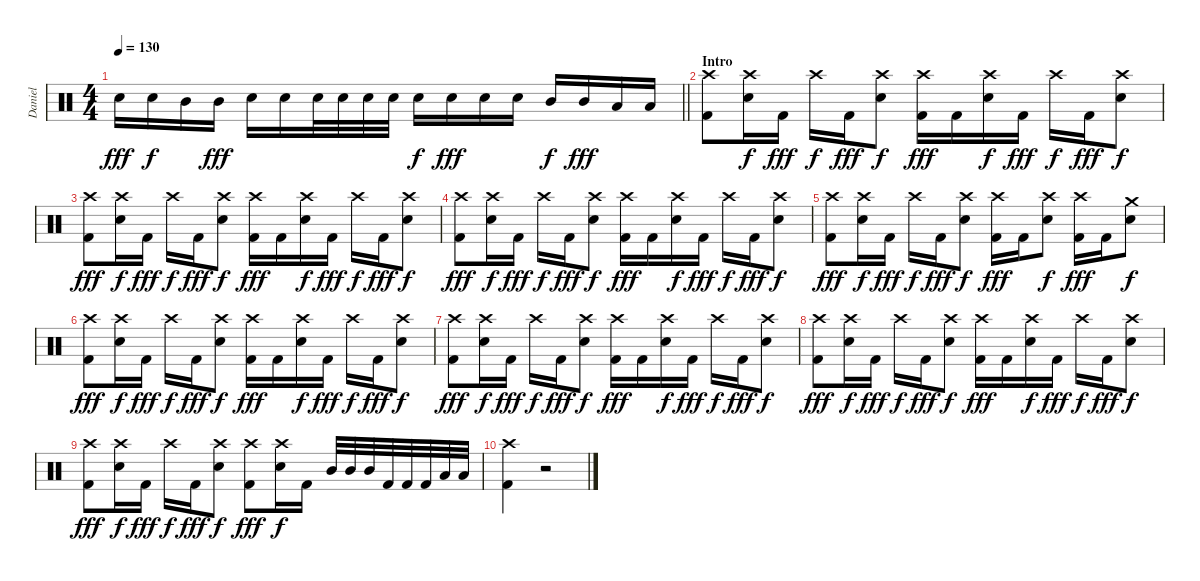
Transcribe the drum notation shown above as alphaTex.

\track ("Daniel" "Daniel") {instrument percussion}
\staff {score}
\articulation defaults
\ts (4 4)
\tempo 130
\clef neutral
\barLineRight lightlight
\ks c "Electric Snare (hit)".16{dy fff} "Electric Snare (hit)".16{dy f} "Mid Tom (hit)".16 "Mid Tom (hit)".16{dy fff} "Electric Snare (hit)".16 "Electric Snare (hit)".16 "Electric Snare (hit)".32 "Electric Snare (hit)".32 "Electric Snare (hit)".32 "Electric Snare (hit)".32 "Electric Snare (hit)".16{dy f} "Electric Snare (hit)".16{dy fff} "Electric Snare (hit)".16 "Electric Snare (hit)".16 "Mid Tom (hit)".16{dy f} "Mid Tom (hit)".16{dy fff} "Low Tom (hit)".16 "Low Tom (hit)".16
|
\section ("" "Intro")
("Crash high (hit)" "Kick (hit) 2").8 ("Crash high (hit)" "Electric Snare (hit)").16{dy f} "Kick (hit) 2".16{dy fff} "Crash high (hit)".16{dy f} "Kick (hit) 2".16{dy fff} ("Crash high (hit)" "Electric Snare (hit)").8{dy f} ("Crash high (hit)" "Kick (hit) 2").16{dy fff} "Kick (hit) 2".16 ("Crash high (hit)" "Electric Snare (hit)").16{dy f} "Kick (hit) 2".16{dy fff} "Crash high (hit)".16{dy f} "Kick (hit) 2".16{dy fff} ("Crash high (hit)" "Electric Snare (hit)").8{dy f} |
("Crash high (hit)" "Kick (hit) 2").8{dy fff} ("Crash high (hit)" "Electric Snare (hit)").16{dy f} "Kick (hit) 2".16{dy fff} "Crash high (hit)".16{dy f} "Kick (hit) 2".16{dy fff} ("Crash high (hit)" "Electric Snare (hit)").8{dy f} ("Crash high (hit)" "Kick (hit) 2").16{dy fff} "Kick (hit) 2".16 ("Crash high (hit)" "Electric Snare (hit)").16{dy f} "Kick (hit) 2".16{dy fff} "Crash high (hit)".16{dy f} "Kick (hit) 2".16{dy fff} ("Crash high (hit)" "Electric Snare (hit)").8{dy f} |
("Crash high (hit)" "Kick (hit) 2").8{dy fff} ("Crash high (hit)" "Electric Snare (hit)").16{dy f} "Kick (hit) 2".16{dy fff} "Crash high (hit)".16{dy f} "Kick (hit) 2".16{dy fff} ("Crash high (hit)" "Electric Snare (hit)").8{dy f} ("Crash high (hit)" "Kick (hit) 2").16{dy fff} "Kick (hit) 2".16 ("Crash high (hit)" "Electric Snare (hit)").16{dy f} "Kick (hit) 2".16{dy fff} "Crash high (hit)".16{dy f} "Kick (hit) 2".16{dy fff} ("Crash high (hit)" "Electric Snare (hit)").8{dy f} |
("Crash high (hit)" "Kick (hit) 2").8{dy fff} ("Crash high (hit)" "Electric Snare (hit)").16{dy f} "Kick (hit) 2".16{dy fff} "Crash high (hit)".16{dy f} "Kick (hit) 2".16{dy fff} ("Crash high (hit)" "Electric Snare (hit)").8{dy f} ("Crash high (hit)" "Kick (hit) 2").16{dy fff} "Kick (hit) 2".16 ("Crash high (hit)" "Electric Snare (hit)").8{dy f} ("Crash high (hit)" "Kick (hit) 2").16{dy fff} "Kick (hit) 2".16 ("Crash medium (hit)" "Electric Snare (hit)").8{dy f} |
("Crash high (hit)" "Kick (hit) 2").8{dy fff} ("Crash high (hit)" "Electric Snare (hit)").16{dy f} "Kick (hit) 2".16{dy fff} "Crash high (hit)".16{dy f} "Kick (hit) 2".16{dy fff} ("Crash high (hit)" "Electric Snare (hit)").8{dy f} ("Crash high (hit)" "Kick (hit) 2").16{dy fff} "Kick (hit) 2".16 ("Crash high (hit)" "Electric Snare (hit)").16{dy f} "Kick (hit) 2".16{dy fff} "Crash high (hit)".16{dy f} "Kick (hit) 2".16{dy fff} ("Crash high (hit)" "Electric Snare (hit)").8{dy f} |
("Crash high (hit)" "Kick (hit) 2").8{dy fff} ("Crash high (hit)" "Electric Snare (hit)").16{dy f} "Kick (hit) 2".16{dy fff} "Crash high (hit)".16{dy f} "Kick (hit) 2".16{dy fff} ("Crash high (hit)" "Electric Snare (hit)").8{dy f} ("Crash high (hit)" "Kick (hit) 2").16{dy fff} "Kick (hit) 2".16 ("Crash high (hit)" "Electric Snare (hit)").16{dy f} "Kick (hit) 2".16{dy fff} "Crash high (hit)".16{dy f} "Kick (hit) 2".16{dy fff} ("Crash high (hit)" "Electric Snare (hit)").8{dy f} |
("Crash high (hit)" "Kick (hit) 2").8{dy fff} ("Crash high (hit)" "Electric Snare (hit)").16{dy f} "Kick (hit) 2".16{dy fff} "Crash high (hit)".16{dy f} "Kick (hit) 2".16{dy fff} ("Crash high (hit)" "Electric Snare (hit)").8{dy f} ("Crash high (hit)" "Kick (hit) 2").16{dy fff} "Kick (hit) 2".16 ("Crash high (hit)" "Electric Snare (hit)").16{dy f} "Kick (hit) 2".16{dy fff} "Crash high (hit)".16{dy f} "Kick (hit) 2".16{dy fff} ("Crash high (hit)" "Electric Snare (hit)").8{dy f} |
("Crash high (hit)" "Kick (hit) 2").8{dy fff} ("Crash high (hit)" "Electric Snare (hit)").16{dy f} "Kick (hit) 2".16{dy fff} "Crash high (hit)".16{dy f} "Kick (hit) 2".16{dy fff} ("Crash high (hit)" "Electric Snare (hit)").8{dy f} ("Crash high (hit)" "Kick (hit) 2").8{dy fff} ("Crash high (hit)" "Electric Snare (hit)").16{dy f} "Kick (hit) 2".16 "Mid Tom (hit)".32 "Mid Tom (hit)".32 "Mid Tom (hit)".32 "Kick (hit) 2".32 "Kick (hit) 2".32 "Kick (hit) 2".32 "Low Tom (hit)".32 "Low Tom (hit)".32 |
("Crash high (hit)" "Kick (hit) 2").4 r.2
